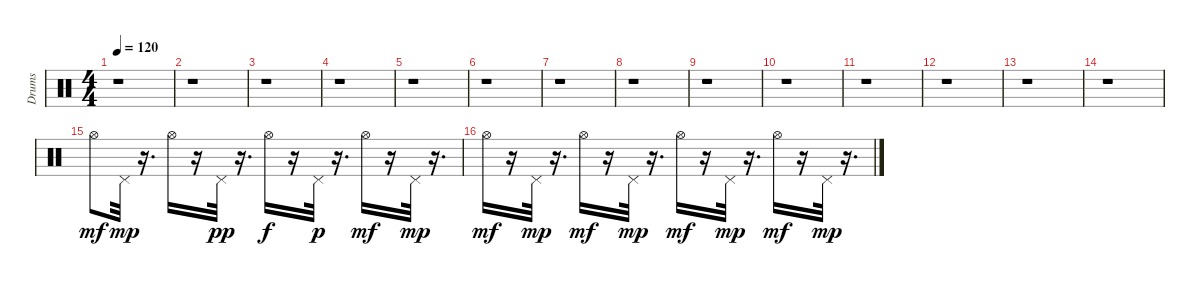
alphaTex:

\track ("Drums" "Drums") {instrument percussion}
\staff {score}
\articulation defaults
\ts (4 4)
\tempo 120
\clef neutral
\ks c
r.1{dy mf} |
r.1 |
r.1 |
r.1 |
r.1 |
r.1 |
r.1 |
r.1 |
r.1 |
r.1 |
r.1 |
r.1 |
r.1 |
r.1 |
"Hi-Hat (open)".8 "Pedal Hi-Hat (hit)".32{dy mp} r.16{d} "Hi-Hat (open)".16 r.16 "Pedal Hi-Hat (hit)".32{dy pp} r.16{d} "Hi-Hat (open)".16{dy f} r.16 "Pedal Hi-Hat (hit)".32{dy p} r.16{d} "Hi-Hat (open)".16{dy mf} r.16 "Pedal Hi-Hat (hit)".32{dy mp} r.16{d} |
"Hi-Hat (open)".16{dy mf} r.16 "Pedal Hi-Hat (hit)".32{dy mp} r.16{d} "Hi-Hat (open)".16{dy mf} r.16 "Pedal Hi-Hat (hit)".32{dy mp} r.16{d} "Hi-Hat (open)".16{dy mf} r.16 "Pedal Hi-Hat (hit)".32{dy mp} r.16{d} "Hi-Hat (open)".16{dy mf} r.16 "Pedal Hi-Hat (hit)".32{dy mp} r.16{d}
